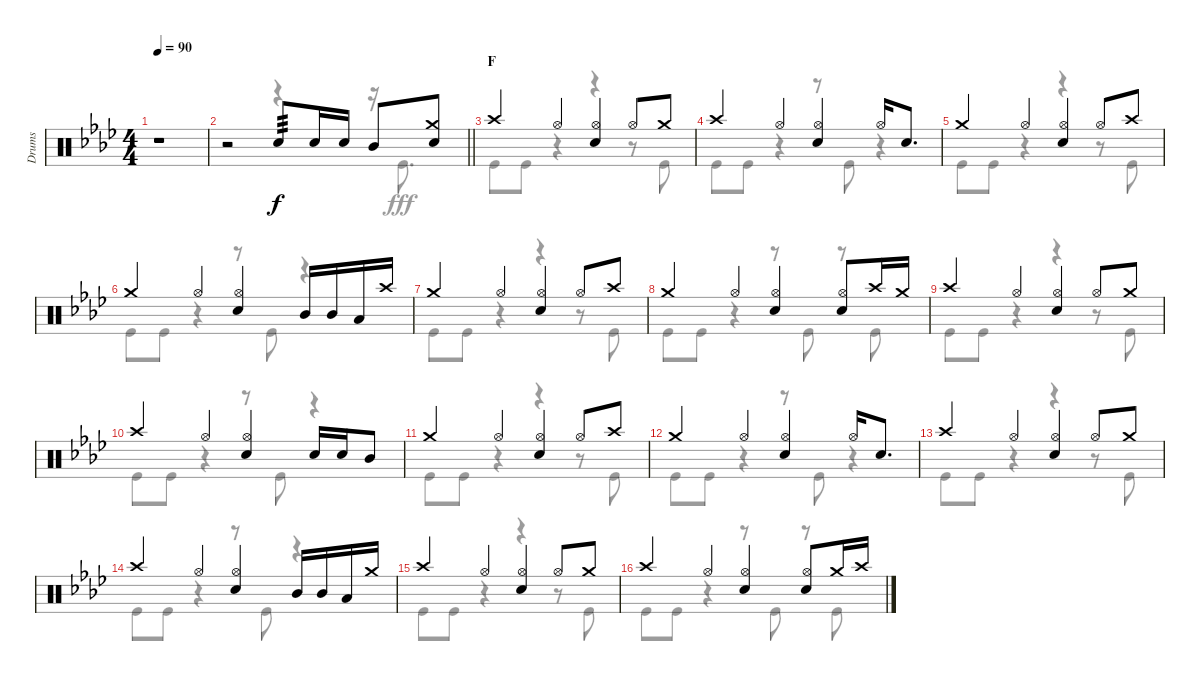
\track ("Drums" "Drums") {instrument percussion}
\staff {score}
\articulation defaults
\voice
\ts (4 4)
\tempo 90
\clef neutral
\ks ab
r.1{dy f} |
\barLineRight lightlight
r.2 "Snare (hit) 2".8{tp 3} "Snare (hit) 2".16 "Snare (hit) 2".16 "Mid Tom (hit)".8 ("Crash medium (hit)" "Snare (hit) 2").8 |
\section ("" "F")
"Crash high (hit)".4 "Hi-Hat (open)".4 ("Hi-Hat (open)" "Snare (hit) 2").4 "Hi-Hat (open)".8 "Crash medium (hit)".8 |
"Crash high (hit)".4 "Hi-Hat (open)".4 ("Hi-Hat (open)" "Snare (hit) 2").4 "Hi-Hat (open)".16 "Snare (hit) 2".8{d} |
"Crash medium (hit)".4 "Hi-Hat (open)".4 ("Hi-Hat (open)" "Snare (hit) 2").4 "Hi-Hat (open)".8 "Crash high (hit)".8 |
"Crash medium (hit)".4 "Hi-Hat (open)".4 ("Hi-Hat (open)" "Snare (hit) 2").4 "Mid Tom (hit)".16 "Mid Tom (hit)".16 "Low Tom (hit)".16 "Crash high (hit)".16 |
"Crash medium (hit)".4 "Hi-Hat (open)".4 ("Hi-Hat (open)" "Snare (hit) 2").4 "Hi-Hat (open)".8 "Crash high (hit)".8 |
"Crash medium (hit)".4 "Hi-Hat (open)".4 ("Hi-Hat (open)" "Snare (hit) 2").4 ("Hi-Hat (open)" "Snare (hit) 2").8 "Crash high (hit)".16 "Crash medium (hit)".16 |
"Crash high (hit)".4 "Hi-Hat (open)".4 ("Hi-Hat (open)" "Snare (hit) 2").4 "Hi-Hat (open)".8 "Crash medium (hit)".8 |
"Crash high (hit)".4 "Hi-Hat (open)".4 ("Hi-Hat (open)" "Snare (hit) 2").4 "Snare (hit) 2".16 "Snare (hit) 2".16 "Mid Tom (hit)".8 |
"Crash medium (hit)".4 "Hi-Hat (open)".4 ("Hi-Hat (open)" "Snare (hit) 2").4 "Hi-Hat (open)".8 "Crash high (hit)".8 |
"Crash medium (hit)".4 "Hi-Hat (open)".4 ("Hi-Hat (open)" "Snare (hit) 2").4 "Hi-Hat (open)".16 "Snare (hit) 2".8{d} |
"Crash high (hit)".4 "Hi-Hat (open)".4 ("Hi-Hat (open)" "Snare (hit) 2").4 "Hi-Hat (open)".8 "Crash medium (hit)".8 |
"Crash high (hit)".4 "Hi-Hat (open)".4 ("Hi-Hat (open)" "Snare (hit) 2").4 "Mid Tom (hit)".16 "Mid Tom (hit)".16 "Low Tom (hit)".16 "Crash medium (hit)".16 |
"Crash high (hit)".4 "Hi-Hat (open)".4 ("Hi-Hat (open)" "Snare (hit) 2").4 "Hi-Hat (open)".8 "Crash medium (hit)".8 |
"Crash high (hit)".4 "Hi-Hat (open)".4 ("Hi-Hat (open)" "Snare (hit) 2").4 ("Hi-Hat (open)" "Snare (hit) 2").8 "Crash medium (hit)".16 "Crash high (hit)".16
\voice
\clef neutral
\ottava regular
\simile none
\ks ab
r.1{dy fff} |
\barLineRight lightlight
r.2 r.4 r.16 "Kick (hit)".8{d} |
"Kick (hit)".8 "Kick (hit)".8 r.4 r.4 r.8 "Kick (hit)".8 |
"Kick (hit)".8 "Kick (hit)".8 r.4 r.8 "Kick (hit)".8 r.4 |
"Kick (hit)".8 "Kick (hit)".8 r.4 r.4 r.8 "Kick (hit)".8 |
"Kick (hit)".8 "Kick (hit)".8 r.4 r.8 "Kick (hit)".8 r.4 |
"Kick (hit)".8 "Kick (hit)".8 r.4 r.4 r.8 "Kick (hit)".8 |
"Kick (hit)".8 "Kick (hit)".8 r.4 r.8 "Kick (hit)".8 r.8 "Kick (hit)".8 |
"Kick (hit)".8 "Kick (hit)".8 r.4 r.4 r.8 "Kick (hit)".8 |
"Kick (hit)".8 "Kick (hit)".8 r.4 r.8 "Kick (hit)".8 r.4 |
"Kick (hit)".8 "Kick (hit)".8 r.4 r.4 r.8 "Kick (hit)".8 |
"Kick (hit)".8 "Kick (hit)".8 r.4 r.8 "Kick (hit)".8 r.4 |
"Kick (hit)".8 "Kick (hit)".8 r.4 r.4 r.8 "Kick (hit)".8 |
"Kick (hit)".8 "Kick (hit)".8 r.4 r.8 "Kick (hit)".8 r.4 |
"Kick (hit)".8 "Kick (hit)".8 r.4 r.4 r.8 "Kick (hit)".8 |
"Kick (hit)".8 "Kick (hit)".8 r.4 r.8 "Kick (hit)".8 r.8 "Kick (hit)".8
